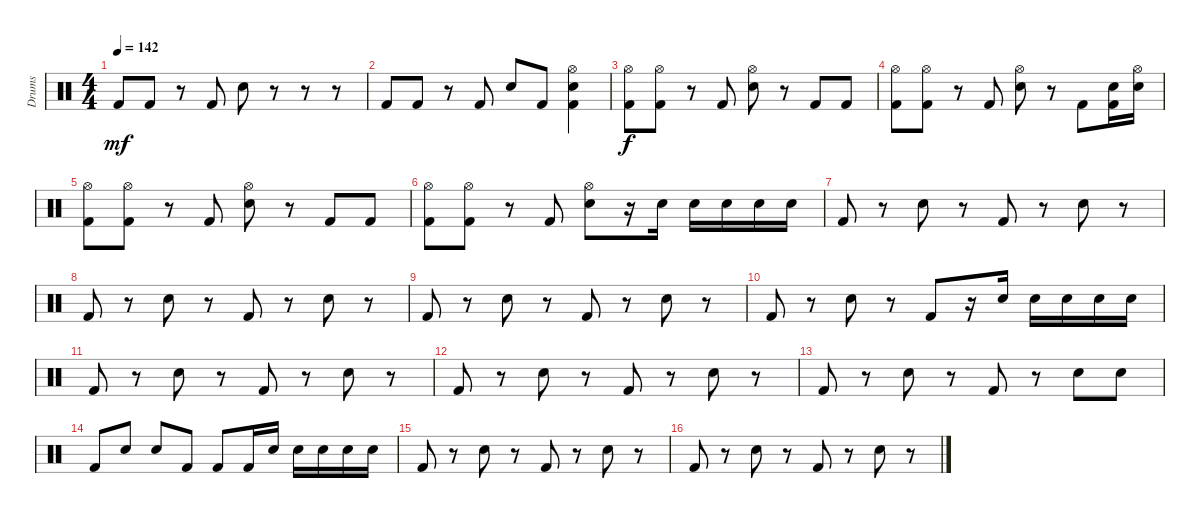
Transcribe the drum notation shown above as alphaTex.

\track ("Drums" "Drums") {instrument percussion}
\staff {score}
\articulation defaults
\ts (4 4)
\tempo 142
\clef neutral
\ks c "Kick (hit) 2".8{dy mf} "Kick (hit) 2".8
r.8 "Kick (hit) 2".8 "Electric Snare (hit)".8 r.8 r.8 r.8 |
"Kick (hit) 2".8 "Kick (hit) 2".8 r.8 "Kick (hit) 2".8 "Snare (hit) 2".8 "Kick (hit) 2".8 ("Hi-Hat (open)" "Snare (hit) 2" "Kick (hit) 2").4 |
("Hi-Hat (open)" "Kick (hit) 2").8{dy f} ("Hi-Hat (open)" "Kick (hit) 2").8 r.8 "Kick (hit) 2".8 ("Hi-Hat (open)" "Snare (hit) 2").8 r.8 "Kick (hit) 2".8 "Kick (hit) 2".8 |
("Hi-Hat (open)" "Kick (hit) 2").8 ("Hi-Hat (open)" "Kick (hit) 2").8 r.8 "Kick (hit) 2".8 ("Hi-Hat (open)" "Snare (hit) 2").8 r.8 "Kick (hit) 2".8 ("Snare (hit) 2" "Kick (hit) 2").16 ("Hi-Hat (open)" "Snare (hit) 2").16 |
("Hi-Hat (open)" "Kick (hit) 2").8 ("Hi-Hat (open)" "Kick (hit) 2").8 r.8 "Kick (hit) 2".8 ("Hi-Hat (open)" "Snare (hit) 2").8 r.8 "Kick (hit) 2".8 "Kick (hit) 2".8 |
("Hi-Hat (open)" "Kick (hit) 2").8 ("Hi-Hat (open)" "Kick (hit) 2").8 r.8 "Kick (hit) 2".8 ("Hi-Hat (open)" "Snare (hit) 2").8 r.16 "Snare (hit) 2".16 "Snare (hit) 2".16 "Snare (hit) 2".16 "Snare (hit) 2".16 "Snare (hit) 2".16 |
"Kick (hit) 2".8 r.8 "Snare (hit) 2".8 r.8 "Kick (hit) 2".8 r.8 "Snare (hit) 2".8 r.8 |
"Kick (hit) 2".8 r.8 "Snare (hit) 2".8 r.8 "Kick (hit) 2".8 r.8 "Snare (hit) 2".8 r.8 |
"Kick (hit) 2".8 r.8 "Snare (hit) 2".8 r.8 "Kick (hit) 2".8 r.8 "Snare (hit) 2".8 r.8 |
"Kick (hit) 2".8 r.8 "Snare (hit) 2".8 r.8 "Kick (hit) 2".8 r.16 "Snare (hit) 2".16 "Snare (hit) 2".16 "Snare (hit) 2".16 "Snare (hit) 2".16 "Snare (hit) 2".16 |
"Kick (hit) 2".8 r.8 "Snare (hit) 2".8 r.8 "Kick (hit) 2".8 r.8 "Snare (hit) 2".8 r.8 |
"Kick (hit) 2".8 r.8 "Snare (hit) 2".8 r.8 "Kick (hit) 2".8 r.8 "Snare (hit) 2".8 r.8 |
"Kick (hit) 2".8 r.8 "Snare (hit) 2".8 r.8 "Kick (hit) 2".8 r.8 "Snare (hit) 2".8 "Snare (hit) 2".8 |
"Kick (hit) 2".8 "Snare (hit) 2".8 "Snare (hit) 2".8 "Kick (hit) 2".8 "Kick (hit) 2".8 "Kick (hit) 2".16 "Snare (hit) 2".16 "Snare (hit) 2".16 "Snare (hit) 2".16 "Snare (hit) 2".16 "Snare (hit) 2".16 |
"Kick (hit) 2".8 r.8 "Snare (hit) 2".8 r.8 "Kick (hit) 2".8 r.8 "Snare (hit) 2".8 r.8 |
"Kick (hit) 2".8 r.8 "Snare (hit) 2".8 r.8 "Kick (hit) 2".8 r.8 "Snare (hit) 2".8 r.8
